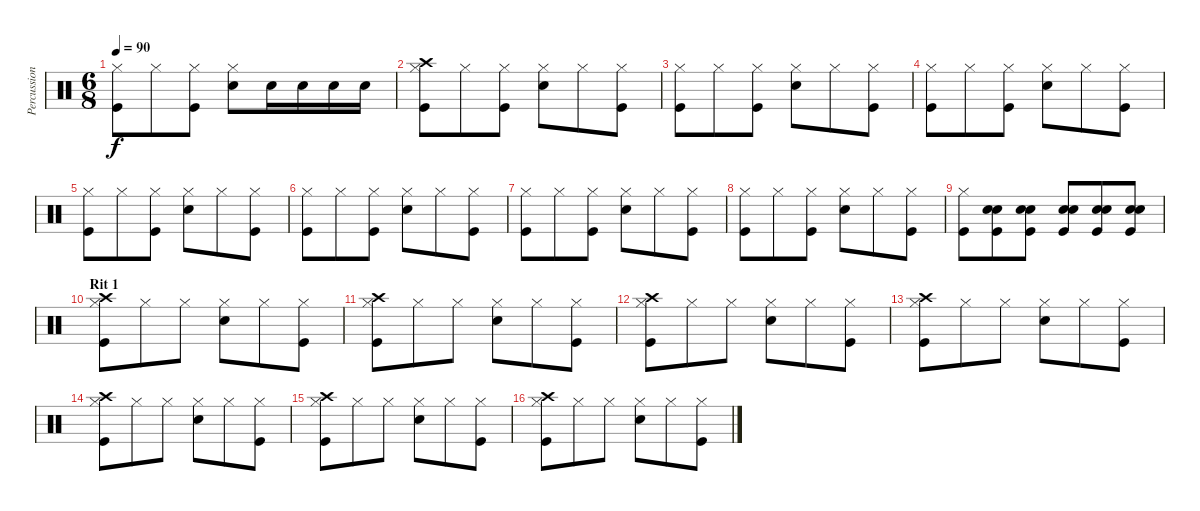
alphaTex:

\track ("Percussioni" "Percussion") {instrument percussion}
\staff {score}
\articulation defaults
\ts (6 8)
\tempo 90
\clef neutral
\ks c
("Hi-Hat (closed)" "Kick (hit)").8{dy f} "Hi-Hat (closed)".8 ("Hi-Hat (closed)" "Kick (hit)").8 ("Hi-Hat (closed)" "Snare (hit) 2").8 "Snare (hit) 2".16 "Snare (hit) 2".16 "Snare (hit) 2".16 "Snare (hit) 2".16 |
("Crash high (hit)" "Hi-Hat (closed)" "Kick (hit)").8 "Hi-Hat (closed)".8 ("Hi-Hat (closed)" "Kick (hit)").8 ("Hi-Hat (closed)" "Snare (hit) 2").8 "Hi-Hat (closed)".8 ("Hi-Hat (closed)" "Kick (hit)").8 |
("Hi-Hat (closed)" "Kick (hit)").8 "Hi-Hat (closed)".8 ("Hi-Hat (closed)" "Kick (hit)").8 ("Hi-Hat (closed)" "Snare (hit) 2").8 "Hi-Hat (closed)".8 ("Hi-Hat (closed)" "Kick (hit)").8 |
("Hi-Hat (closed)" "Kick (hit)").8 "Hi-Hat (closed)".8 ("Hi-Hat (closed)" "Kick (hit)").8 ("Hi-Hat (closed)" "Snare (hit) 2").8 "Hi-Hat (closed)".8 ("Hi-Hat (closed)" "Kick (hit)").8 |
("Hi-Hat (closed)" "Kick (hit)").8 "Hi-Hat (closed)".8 ("Hi-Hat (closed)" "Kick (hit)").8 ("Hi-Hat (closed)" "Snare (hit) 2").8 "Hi-Hat (closed)".8 ("Hi-Hat (closed)" "Kick (hit)").8 |
("Hi-Hat (closed)" "Kick (hit)").8 "Hi-Hat (closed)".8 ("Hi-Hat (closed)" "Kick (hit)").8 ("Hi-Hat (closed)" "Snare (hit) 2").8 "Hi-Hat (closed)".8 ("Hi-Hat (closed)" "Kick (hit)").8 |
("Hi-Hat (closed)" "Kick (hit)").8 "Hi-Hat (closed)".8 ("Hi-Hat (closed)" "Kick (hit)").8 ("Hi-Hat (closed)" "Snare (hit) 2").8 "Hi-Hat (closed)".8 ("Hi-Hat (closed)" "Kick (hit)").8 |
("Hi-Hat (closed)" "Kick (hit)").8 "Hi-Hat (closed)".8 ("Hi-Hat (closed)" "Kick (hit)").8 ("Hi-Hat (closed)" "Snare (hit) 2").8 "Hi-Hat (closed)".8 ("Hi-Hat (closed)" "Kick (hit)").8 |
("Hi-Hat (closed)" "Kick (hit)").8 ("Snare (hit) 2" "Snare (hit) 2" "Kick (hit)").8 ("Snare (hit) 2" "Snare (hit) 2" "Kick (hit)").8 ("Snare (hit) 2" "Snare (hit) 2" "Kick (hit)").8 ("Snare (hit) 2" "Snare (hit) 2" "Kick (hit)").8 ("Snare (hit) 2" "Snare (hit) 2" "Kick (hit)").8 |
\section ("" "Rit 1")
("Crash high (hit)" "Hi-Hat (closed)" "Kick (hit)").8 "Hi-Hat (closed)".8 "Hi-Hat (closed)".8 ("Hi-Hat (closed)" "Snare (hit) 2").8 "Hi-Hat (closed)".8 ("Hi-Hat (closed)" "Kick (hit)").8 |
("Crash high (hit)" "Hi-Hat (closed)" "Kick (hit)").8 "Hi-Hat (closed)".8 "Hi-Hat (closed)".8 ("Hi-Hat (closed)" "Snare (hit) 2").8 "Hi-Hat (closed)".8 ("Hi-Hat (closed)" "Kick (hit)").8 |
("Crash high (hit)" "Hi-Hat (closed)" "Kick (hit)").8 "Hi-Hat (closed)".8 "Hi-Hat (closed)".8 ("Hi-Hat (closed)" "Snare (hit) 2").8 "Hi-Hat (closed)".8 ("Hi-Hat (closed)" "Kick (hit)").8 |
("Crash high (hit)" "Hi-Hat (closed)" "Kick (hit)").8 "Hi-Hat (closed)".8 "Hi-Hat (closed)".8 ("Hi-Hat (closed)" "Snare (hit) 2").8 "Hi-Hat (closed)".8 ("Hi-Hat (closed)" "Kick (hit)").8 |
("Crash high (hit)" "Hi-Hat (closed)" "Kick (hit)").8 "Hi-Hat (closed)".8 "Hi-Hat (closed)".8 ("Hi-Hat (closed)" "Snare (hit) 2").8 "Hi-Hat (closed)".8 ("Hi-Hat (closed)" "Kick (hit)").8 |
("Crash high (hit)" "Hi-Hat (closed)" "Kick (hit)").8 "Hi-Hat (closed)".8 "Hi-Hat (closed)".8 ("Hi-Hat (closed)" "Snare (hit) 2").8 "Hi-Hat (closed)".8 ("Hi-Hat (closed)" "Kick (hit)").8 |
("Crash high (hit)" "Hi-Hat (closed)" "Kick (hit)").8 "Hi-Hat (closed)".8 "Hi-Hat (closed)".8 ("Hi-Hat (closed)" "Snare (hit) 2").8 "Hi-Hat (closed)".8 ("Hi-Hat (closed)" "Kick (hit)").8
